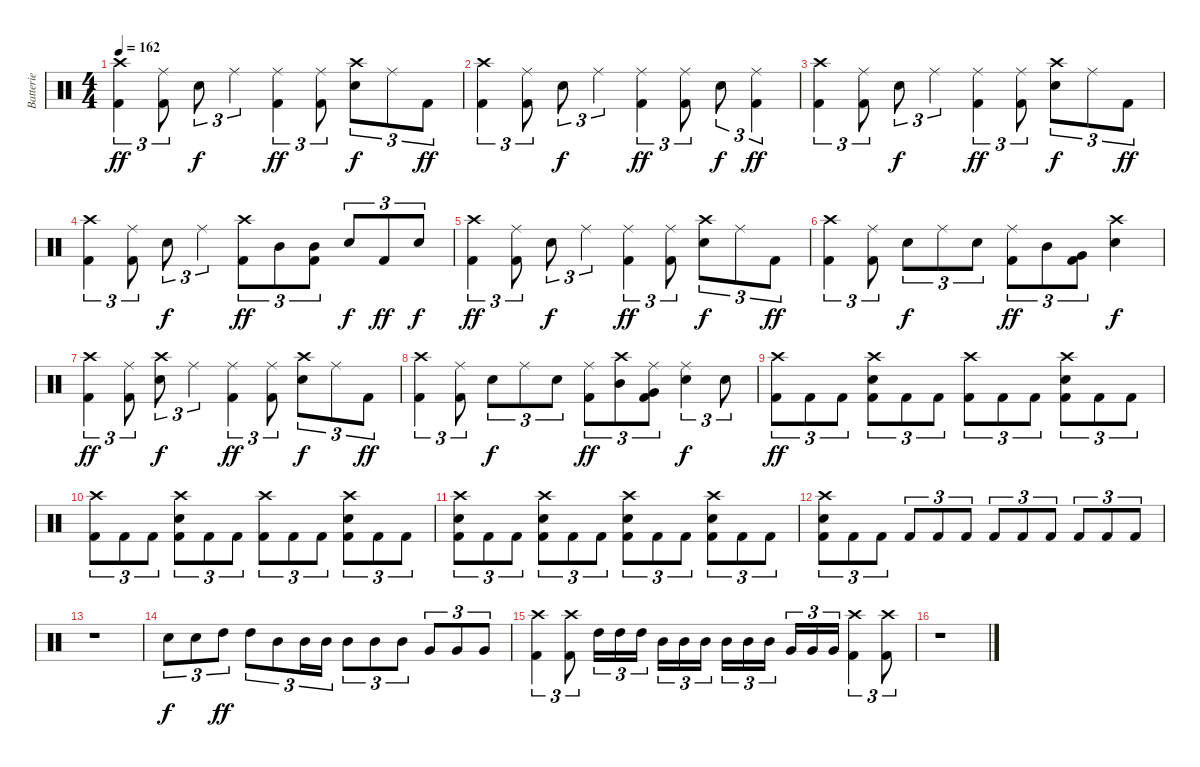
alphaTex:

\track ("Batterie" "Batterie") {instrument percussion}
\staff {score}
\articulation defaults
\ts (4 4)
\tempo 162
\clef neutral
\ks c
("Crash high (hit)" "Kick (hit) 2").4{tu (3 2) dy ff} ("Ride (middle)" "Kick (hit) 2").8{tu (3 2)} "Snare (hit) 2".8{tu (3 2) dy f} "Ride (middle)".4{tu (3 2)} ("Ride (middle)" "Kick (hit) 2").4{tu (3 2) dy ff} ("Ride (middle)" "Kick (hit) 2").8{tu (3 2)} ("Crash high (hit)" "Snare (hit) 2").8{tu (3 2) dy f} "Ride (middle)".8{tu (3 2)} "Kick (hit) 2".8{tu (3 2) dy ff} |
("Crash high (hit)" "Kick (hit) 2").4{tu (3 2)} ("Ride (middle)" "Kick (hit) 2").8{tu (3 2)} "Snare (hit) 2".8{tu (3 2) dy f} "Ride (middle)".4{tu (3 2)} ("Ride (middle)" "Kick (hit) 2").4{tu (3 2) dy ff} ("Ride (middle)" "Kick (hit) 2").8{tu (3 2)} "Snare (hit) 2".8{tu (3 2) dy f} ("Ride (middle)" "Kick (hit) 2").4{tu (3 2) dy ff} |
("Crash high (hit)" "Kick (hit) 2").4{tu (3 2)} ("Ride (middle)" "Kick (hit) 2").8{tu (3 2)} "Snare (hit) 2".8{tu (3 2) dy f} "Ride (middle)".4{tu (3 2)} ("Ride (middle)" "Kick (hit) 2").4{tu (3 2) dy ff} ("Ride (middle)" "Kick (hit) 2").8{tu (3 2)} ("Crash high (hit)" "Snare (hit) 2").8{tu (3 2) dy f} "Ride (middle)".8{tu (3 2)} "Kick (hit) 2".8{tu (3 2) dy ff} |
("Crash high (hit)" "Kick (hit) 2").4{tu (3 2)} ("Ride (middle)" "Kick (hit) 2").8{tu (3 2)} "Snare (hit) 2".8{tu (3 2) dy f} "Ride (middle)".4{tu (3 2)} ("Crash high (hit)" "Kick (hit) 2").8{tu (3 2) dy ff} "Mid Tom (hit)".8{tu (3 2)} ("Mid Tom (hit)" "Kick (hit) 2").8{tu (3 2)} "Snare (hit) 2".8{tu (3 2) dy f} "Kick (hit) 2".8{tu (3 2) dy ff} "Snare (hit) 2".8{tu (3 2) dy f} |
("Crash high (hit)" "Kick (hit) 2").4{tu (3 2) dy ff} ("Ride (middle)" "Kick (hit) 2").8{tu (3 2)} "Snare (hit) 2".8{tu (3 2) dy f} "Ride (middle)".4{tu (3 2)} ("Ride (middle)" "Kick (hit) 2").4{tu (3 2) dy ff} ("Ride (middle)" "Kick (hit) 2").8{tu (3 2)} ("Crash high (hit)" "Snare (hit) 2").8{tu (3 2) dy f} "Ride (middle)".8{tu (3 2)} "Kick (hit) 2".8{tu (3 2) dy ff} |
("Crash high (hit)" "Kick (hit) 2").4{tu (3 2)} ("Ride (middle)" "Kick (hit) 2").8{tu (3 2)} "Snare (hit) 2".8{tu (3 2) dy f} "Ride (middle)".8{tu (3 2)} "Snare (hit) 2".8{tu (3 2)} ("Ride (middle)" "Kick (hit) 2").8{tu (3 2) dy ff} "Mid Tom (hit)".8{tu (3 2)} ("Very Low Tom (hit)" "Kick (hit) 2").8{tu (3 2)} ("Crash high (hit)" "Snare (hit) 2").4{dy f} |
("Crash high (hit)" "Kick (hit) 2").4{tu (3 2) dy ff} ("Ride (middle)" "Kick (hit) 2").8{tu (3 2)} ("Crash high (hit)" "Snare (hit) 2").8{tu (3 2) dy f} "Ride (middle)".4{tu (3 2)} ("Ride (middle)" "Kick (hit) 2").4{tu (3 2) dy ff} ("Ride (middle)" "Kick (hit) 2").8{tu (3 2)} ("Crash high (hit)" "Snare (hit) 2").8{tu (3 2) dy f} "Ride (middle)".8{tu (3 2)} "Kick (hit) 2".8{tu (3 2) dy ff} |
("Crash high (hit)" "Kick (hit) 2").4{tu (3 2)} ("Ride (middle)" "Kick (hit) 2").8{tu (3 2)} "Snare (hit) 2".8{tu (3 2) dy f} "Ride (middle)".8{tu (3 2)} "Snare (hit) 2".8{tu (3 2)} ("Ride (middle)" "Kick (hit) 2").8{tu (3 2) dy ff} ("Crash high (hit)" "Mid Tom (hit)").8{tu (3 2)} ("Ride (middle)" "Very Low Tom (hit)" "Kick (hit) 2").8{tu (3 2)} ("Ride (middle)" "Snare (hit) 2").4{tu (3 2) dy f} "Snare (hit) 2".8{tu (3 2)} |
("Crash high (hit)" "Kick (hit) 2").8{tu (3 2) dy ff} "Kick (hit) 2".8{tu (3 2)} "Kick (hit) 2".8{tu (3 2)} ("Crash high (hit)" "Snare (hit) 2" "Kick (hit) 2").8{tu (3 2)} "Kick (hit) 2".8{tu (3 2)} "Kick (hit) 2".8{tu (3 2)} ("Crash high (hit)" "Kick (hit) 2").8{tu (3 2)} "Kick (hit) 2".8{tu (3 2)} "Kick (hit) 2".8{tu (3 2)} ("Crash high (hit)" "Snare (hit) 2" "Kick (hit) 2").8{tu (3 2)} "Kick (hit) 2".8{tu (3 2)} "Kick (hit) 2".8{tu (3 2)} |
("Crash high (hit)" "Kick (hit) 2").8{tu (3 2)} "Kick (hit) 2".8{tu (3 2)} "Kick (hit) 2".8{tu (3 2)} ("Crash high (hit)" "Snare (hit) 2" "Kick (hit) 2").8{tu (3 2)} "Kick (hit) 2".8{tu (3 2)} "Kick (hit) 2".8{tu (3 2)} ("Crash high (hit)" "Kick (hit) 2").8{tu (3 2)} "Kick (hit) 2".8{tu (3 2)} "Kick (hit) 2".8{tu (3 2)} ("Crash high (hit)" "Snare (hit) 2" "Kick (hit) 2").8{tu (3 2)} "Kick (hit) 2".8{tu (3 2)} "Kick (hit) 2".8{tu (3 2)} |
("Crash high (hit)" "Snare (hit) 2" "Kick (hit) 2").8{tu (3 2)} "Kick (hit) 2".8{tu (3 2)} "Kick (hit) 2".8{tu (3 2)} ("Crash high (hit)" "Snare (hit) 2" "Kick (hit) 2").8{tu (3 2)} "Kick (hit) 2".8{tu (3 2)} "Kick (hit) 2".8{tu (3 2)} ("Crash high (hit)" "Snare (hit) 2" "Kick (hit) 2").8{tu (3 2)} "Kick (hit) 2".8{tu (3 2)} "Kick (hit) 2".8{tu (3 2)} ("Crash high (hit)" "Snare (hit) 2" "Kick (hit) 2").8{tu (3 2)} "Kick (hit) 2".8{tu (3 2)} "Kick (hit) 2".8{tu (3 2)} |
("Crash high (hit)" "Snare (hit) 2" "Kick (hit) 2").8{tu (3 2)} "Kick (hit) 2".8{tu (3 2)} "Kick (hit) 2".8{tu (3 2)} "Kick (hit) 2".8{tu (3 2)} "Kick (hit) 2".8{tu (3 2)} "Kick (hit) 2".8{tu (3 2)} "Kick (hit) 2".8{tu (3 2)} "Kick (hit) 2".8{tu (3 2)} "Kick (hit) 2".8{tu (3 2)} "Kick (hit) 2".8{tu (3 2)} "Kick (hit) 2".8{tu (3 2)} "Kick (hit) 2".8{tu (3 2)} |
r.1 |
"Snare (hit) 2".8{tu (3 2) dy f} "Snare (hit) 2".8{tu (3 2)} "High Tom (hit)".8{tu (3 2) dy ff} "High Tom (hit)".8{tu (3 2)} "Mid Tom (hit)".8{tu (3 2)} "Mid Tom (hit)".16{tu (3 2)} "Mid Tom (hit)".16{tu (3 2)} "Mid Tom (hit)".8{tu (3 2)} "Mid Tom (hit)".8{tu (3 2)} "Mid Tom (hit)".8{tu (3 2)} "Very Low Tom (hit)".8{tu (3 2)} "Very Low Tom (hit)".8{tu (3 2)} "Very Low Tom (hit)".8{tu (3 2)} |
("Crash high (hit)" "Kick (hit) 2").4{tu (3 2)} ("Crash high (hit)" "Kick (hit) 2").8{tu (3 2)} "High Tom (hit)".16{tu (3 2)} "High Tom (hit)".16{tu (3 2)} "High Tom (hit)".16{tu (3 2)} "Mid Tom (hit)".16{tu (3 2)} "Mid Tom (hit)".16{tu (3 2)} "Mid Tom (hit)".16{tu (3 2)} "Mid Tom (hit)".16{tu (3 2)} "Mid Tom (hit)".16{tu (3 2)} "Mid Tom (hit)".16{tu (3 2)} "Very Low Tom (hit)".16{tu (3 2)} "Very Low Tom (hit)".16{tu (3 2)} "Very Low Tom (hit)".16{tu (3 2)} ("Crash high (hit)" "Kick (hit) 2").4{tu (3 2)} ("Crash high (hit)" "Kick (hit) 2").8{tu (3 2)} |
r.1
